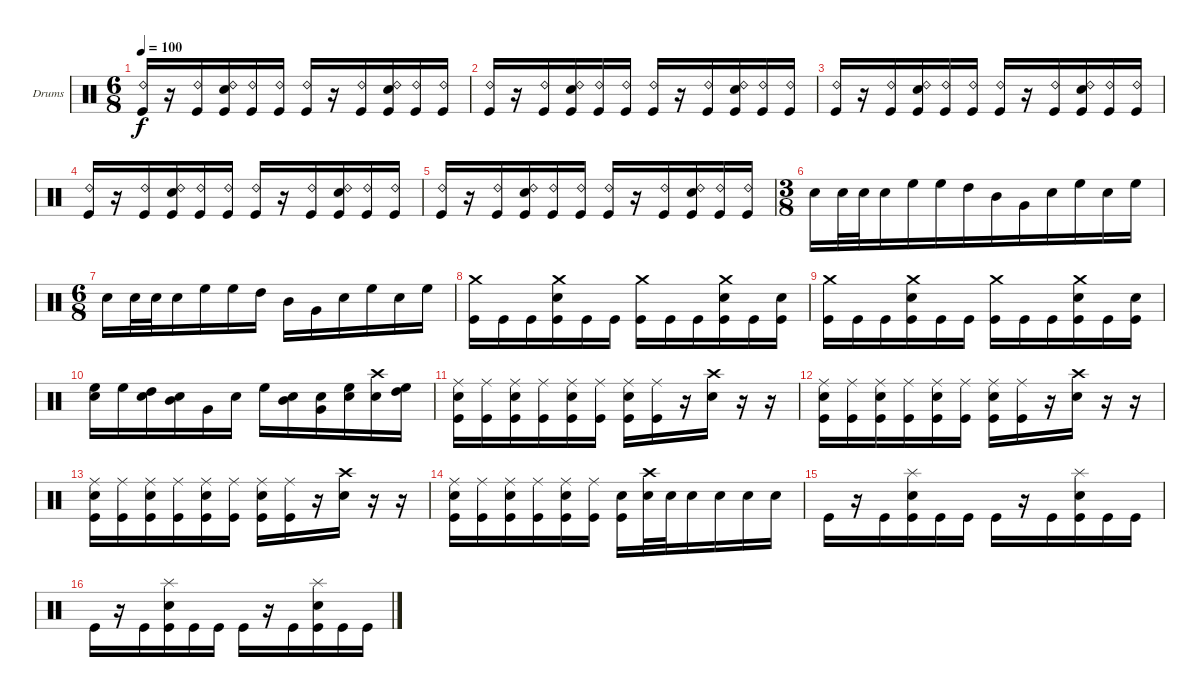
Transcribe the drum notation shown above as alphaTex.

\defaultSystemsLayout 4
\bracketExtendMode groupsimilarinstruments
\firstSystemTrackNameOrientation horizontal
\otherSystemsTrackNameOrientation horizontal
\track ("Drumkit" "Drums") {instrument percussion}
\staff {score}
\articulation defaults
\ts (6 8)
\tempo 100
\clef neutral
\ks c
("Kick (hit)" "Ride (bell) 2").16{dy f} r.16 ("Kick (hit)" "Ride (bell) 2").16 ("Kick (hit)" "Snare (hit) 2" "Ride (bell) 2").16 ("Kick (hit)" "Ride (bell) 2").16 ("Kick (hit)" "Ride (bell) 2").16 ("Kick (hit)" "Ride (bell) 2").16 r.16 ("Kick (hit)" "Ride (bell) 2").16 ("Kick (hit)" "Snare (hit) 2" "Ride (bell) 2").16 ("Kick (hit)" "Ride (bell) 2").16 ("Kick (hit)" "Ride (bell) 2").16 |
("Kick (hit)" "Ride (bell) 2").16 r.16 ("Kick (hit)" "Ride (bell) 2").16 ("Kick (hit)" "Snare (hit) 2" "Ride (bell) 2").16 ("Kick (hit)" "Ride (bell) 2").16 ("Kick (hit)" "Ride (bell) 2").16 ("Kick (hit)" "Ride (bell) 2").16 r.16 ("Kick (hit)" "Ride (bell) 2").16 ("Kick (hit)" "Snare (hit) 2" "Ride (bell) 2").16 ("Kick (hit)" "Ride (bell) 2").16 ("Kick (hit)" "Ride (bell) 2").16 |
("Kick (hit)" "Ride (bell) 2").16 r.16 ("Kick (hit)" "Ride (bell) 2").16 ("Kick (hit)" "Snare (hit) 2" "Ride (bell) 2").16 ("Kick (hit)" "Ride (bell) 2").16 ("Kick (hit)" "Ride (bell) 2").16 ("Kick (hit)" "Ride (bell) 2").16 r.16 ("Kick (hit)" "Ride (bell) 2").16 ("Kick (hit)" "Snare (hit) 2" "Ride (bell) 2").16 ("Kick (hit)" "Ride (bell) 2").16 ("Kick (hit)" "Ride (bell) 2").16 |
("Kick (hit)" "Ride (bell) 2").16 r.16 ("Kick (hit)" "Ride (bell) 2").16 ("Kick (hit)" "Snare (hit) 2" "Ride (bell) 2").16 ("Kick (hit)" "Ride (bell) 2").16 ("Kick (hit)" "Ride (bell) 2").16 ("Kick (hit)" "Ride (bell) 2").16 r.16 ("Kick (hit)" "Ride (bell) 2").16 ("Kick (hit)" "Snare (hit) 2" "Ride (bell) 2").16 ("Kick (hit)" "Ride (bell) 2").16 ("Kick (hit)" "Ride (bell) 2").16 |
("Kick (hit)" "Ride (bell) 2").16 r.16 ("Kick (hit)" "Ride (bell) 2").16 ("Kick (hit)" "Snare (hit) 2" "Ride (bell) 2").16 ("Kick (hit)" "Ride (bell) 2").16 ("Kick (hit)" "Ride (bell) 2").16 ("Kick (hit)" "Ride (bell) 2").16 r.16 ("Kick (hit)" "Ride (bell) 2").16 ("Kick (hit)" "Snare (hit) 2" "Ride (bell) 2").16 ("Kick (hit)" "Ride (bell) 2").16 ("Kick (hit)" "Ride (bell) 2").16 |
\ts (3 8)
\scale
0.333333 "Snare (hit) 2".16 "Snare (hit) 2".32 "Snare (hit) 2".32 "Snare (hit) 2".16 "High Floor Tom (hit)".16 "High Floor Tom (hit)".16 "High Tom (hit)".16 "Mid Tom (hit)".16 "Very Low Tom (hit)".16 "Snare (hit) 2".16 "High Floor Tom (hit)".16 "Snare (hit) 2".16 "High Floor Tom (hit)".16 |
\ts (6 8)
\scale
0.333333 "Snare (hit) 2".16 "Snare (hit) 2".32 "Snare (hit) 2".32 "Snare (hit) 2".16 "High Floor Tom (hit)".16 "High Floor Tom (hit)".16 "High Tom (hit)".16 "Mid Tom (hit)".16 "Very Low Tom (hit)".16 "Snare (hit) 2".16 "High Floor Tom (hit)".16 "Snare (hit) 2".16 "High Floor Tom (hit)".16 |
\scale
0.333333 ("Kick (hit)" "Crash medium (hit)").16 "Kick (hit)".16 "Kick (hit)".16 ("Kick (hit)" "Snare (hit) 2" "Crash medium (hit)").16 "Kick (hit)".16 "Kick (hit)".16 ("Kick (hit)" "Crash medium (hit)").16 "Kick (hit)".16 "Kick (hit)".16 ("Kick (hit)" "Snare (hit) 2" "Crash medium (hit)").16 "Kick (hit)".16 ("Kick (hit)" "Snare (hit) 2").16 |
\scale
0.333333 ("Kick (hit)" "Crash medium (hit)").16 "Kick (hit)".16 "Kick (hit)".16 ("Kick (hit)" "Snare (hit) 2" "Crash medium (hit)").16 "Kick (hit)".16 "Kick (hit)".16 ("Kick (hit)" "Crash medium (hit)").16 "Kick (hit)".16 "Kick (hit)".16 ("Kick (hit)" "Snare (hit) 2" "Crash medium (hit)").16 "Kick (hit)".16 ("Kick (hit)" "Snare (hit) 2").16 |
\scale
0.333333 ("High Floor Tom (hit)" "Snare (hit) 2").16 "High Floor Tom (hit)".16 ("High Tom (hit)" "Snare (hit) 2").16 ("Mid Tom (hit)" "Snare (hit) 2").16 "Very Low Tom (hit)".16 "Snare (hit) 2".16 "High Floor Tom (hit)".16 ("Mid Tom (hit)" "Snare (hit) 2").16 ("Very Low Tom (hit)" "Snare (hit) 2").16 ("Snare (hit) 2" "High Floor Tom (hit)").16 ("Snare (hit) 2" "Crash high (hit)").16 ("High Floor Tom (hit)" "High Tom (hit)").16 |
\scale
0.333333 ("Snare (hit) 2" "Ride (middle)" "Kick (hit)").16 ("Ride (middle)" "Kick (hit)").16 ("Snare (hit) 2" "Ride (middle)" "Kick (hit)").16 ("Ride (middle)" "Kick (hit)").16 ("Snare (hit) 2" "Ride (middle)" "Kick (hit)").16 ("Ride (middle)" "Kick (hit)").16 ("Snare (hit) 2" "Ride (middle)" "Kick (hit)").16 ("Ride (middle)" "Kick (hit)").16 r.16 ("Snare (hit) 2" "Crash high (hit)").16 r.16 r.16 |
\scale
0.333333 ("Snare (hit) 2" "Ride (middle)" "Kick (hit)").16 ("Ride (middle)" "Kick (hit)").16 ("Snare (hit) 2" "Ride (middle)" "Kick (hit)").16 ("Ride (middle)" "Kick (hit)").16 ("Snare (hit) 2" "Ride (middle)" "Kick (hit)").16 ("Ride (middle)" "Kick (hit)").16 ("Snare (hit) 2" "Ride (middle)" "Kick (hit)").16 ("Ride (middle)" "Kick (hit)").16 r.16 ("Snare (hit) 2" "Crash high (hit)").16 r.16 r.16 |
\scale
0.333333 ("Snare (hit) 2" "Ride (middle)" "Kick (hit)").16 ("Ride (middle)" "Kick (hit)").16 ("Snare (hit) 2" "Ride (middle)" "Kick (hit)").16 ("Ride (middle)" "Kick (hit)").16 ("Snare (hit) 2" "Ride (middle)" "Kick (hit)").16 ("Ride (middle)" "Kick (hit)").16 ("Snare (hit) 2" "Ride (middle)" "Kick (hit)").16 ("Ride (middle)" "Kick (hit)").16 r.16 ("Snare (hit) 2" "Crash high (hit)").16 r.16 r.16 |
\scale
0.333333 ("Snare (hit) 2" "Ride (middle)" "Kick (hit)").16 ("Ride (middle)" "Kick (hit)").16 ("Snare (hit) 2" "Ride (middle)" "Kick (hit)").16 ("Ride (middle)" "Kick (hit)").16 ("Snare (hit) 2" "Ride (middle)" "Kick (hit)").16 ("Ride (middle)" "Kick (hit)").16 ("Snare (hit) 2" "Kick (hit)").16 ("Snare (hit) 2" "Crash high (hit)").32 "Snare (hit) 2".32 "Snare (hit) 2".16 "Snare (hit) 2".16 "Snare (hit) 2".16 "Snare (hit) 2".16 |
\scale
0.333333 "Kick (hit)".16 r.16 "Kick (hit)".16 ("Kick (hit)" "Snare (hit) 2" "Splash (hit)").16 "Kick (hit)".16 "Kick (hit)".16 "Kick (hit)".16 r.16 "Kick (hit)".16 ("Kick (hit)" "Snare (hit) 2" "Splash (hit)").16 "Kick (hit)".16 "Kick (hit)".16 |
\scale
0.333333 "Kick (hit)".16 r.16 "Kick (hit)".16 ("Kick (hit)" "Snare (hit) 2" "Splash (hit)").16 "Kick (hit)".16 "Kick (hit)".16 "Kick (hit)".16 r.16 "Kick (hit)".16 ("Kick (hit)" "Snare (hit) 2" "Splash (hit)").16 "Kick (hit)".16 "Kick (hit)".16
